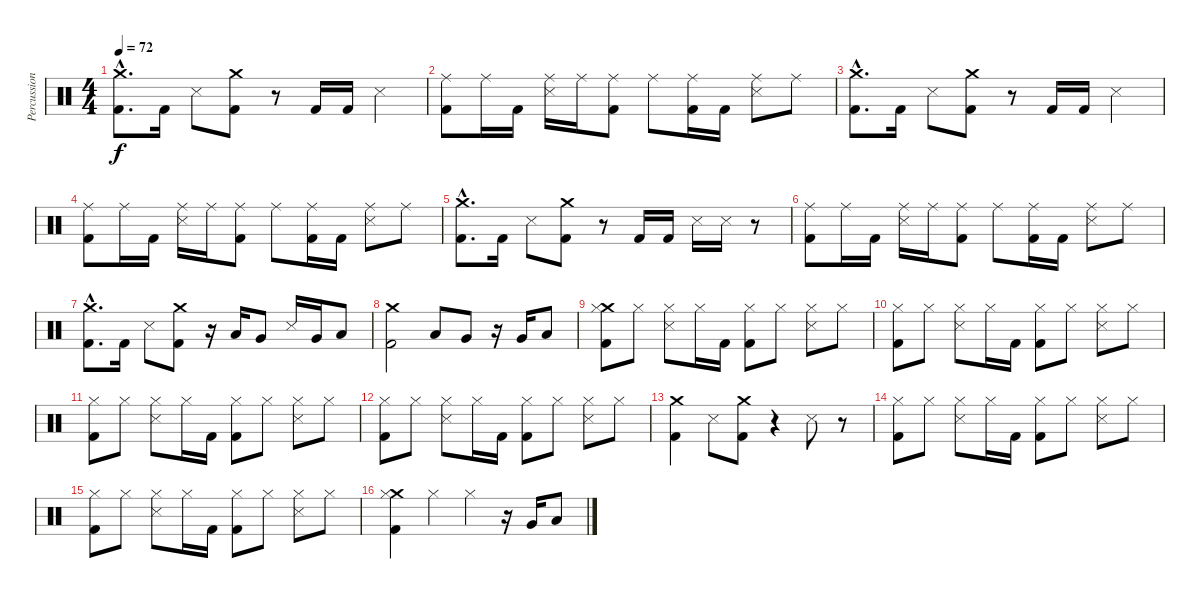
\track ("Percussion" "Percussion") {instrument percussion}
\staff {score}
\articulation defaults
\ts (4 4)
\tempo 72
\clef neutral
\ks c
("Crash medium (hit)"{hac} "Kick (hit) 2"{hac}).8{d dy f} "Kick (hit) 2".16 "Metronome (hit)".8 ("Crash medium (hit)" "Kick (hit) 2").8 r.8 "Kick (hit) 2".16 "Kick (hit) 2".16 "Metronome (hit)".4 |
("Ride (middle)" "Kick (hit) 2").8 "Ride (middle)".16 "Kick (hit) 2".16 ("Ride (middle)" "Metronome (hit)").16 "Ride (middle)".16 ("Ride (middle)" "Kick (hit) 2").8 "Ride (middle)".8 ("Ride (middle)" "Kick (hit) 2").16 "Kick (hit) 2".16 ("Ride (middle)" "Metronome (hit)").8 "Ride (middle)".8 |
("Crash medium (hit)"{hac} "Kick (hit) 2"{hac}).8{d} "Kick (hit) 2".16 "Metronome (hit)".8 ("Crash medium (hit)" "Kick (hit) 2").8 r.8 "Kick (hit) 2".16 "Kick (hit) 2".16 "Metronome (hit)".4 |
("Ride (middle)" "Kick (hit) 2").8 "Ride (middle)".16 "Kick (hit) 2".16 ("Ride (middle)" "Metronome (hit)").16 "Ride (middle)".16 ("Ride (middle)" "Kick (hit) 2").8 "Ride (middle)".8 ("Ride (middle)" "Kick (hit) 2").16 "Kick (hit) 2".16 ("Ride (middle)" "Metronome (hit)").8 "Ride (middle)".8 |
("Crash medium (hit)"{hac} "Kick (hit) 2"{hac}).8{d} "Kick (hit) 2".16 "Metronome (hit)".8 ("Crash medium (hit)" "Kick (hit) 2").8 r.8 "Kick (hit) 2".16 "Kick (hit) 2".16 "Metronome (hit)".16 "Metronome (hit)".16 r.8 |
("Ride (middle)" "Kick (hit) 2").8 "Ride (middle)".16 "Kick (hit) 2".16 ("Ride (middle)" "Metronome (hit)").16 "Ride (middle)".16 ("Ride (middle)" "Kick (hit) 2").8 "Ride (middle)".8 ("Ride (middle)" "Kick (hit) 2").16 "Kick (hit) 2".16 ("Ride (middle)" "Metronome (hit)").8 "Ride (middle)".8 |
("Crash medium (hit)"{hac} "Kick (hit) 2"{hac}).8{d} "Kick (hit) 2".16 "Metronome (hit)".8 ("Crash medium (hit)" "Kick (hit) 2").8 r.16 "Low Tom (hit)".16 "Very Low Tom (hit)".8 "Metronome (hit)".16 "Very Low Tom (hit)".16 "Low Floor Tom (hit)".8 |
("Crash medium (hit)" "Kick (hit) 2").2 "Low Tom (hit)".8 "Very Low Tom (hit)".8 r.16 "Very Low Tom (hit)".16 "Low Floor Tom (hit)".8 |
("Crash medium (hit)" "Hi-Hat (closed)" "Kick (hit) 2").8 "Hi-Hat (closed)".8 ("Hi-Hat (closed)" "Metronome (hit)").8 "Hi-Hat (closed)".16 "Kick (hit) 2".16 ("Hi-Hat (closed)" "Kick (hit) 2").8 "Hi-Hat (closed)".8 ("Hi-Hat (closed)" "Metronome (hit)").8 "Hi-Hat (closed)".8 |
("Hi-Hat (closed)" "Kick (hit) 2").8 "Hi-Hat (closed)".8 ("Hi-Hat (closed)" "Metronome (hit)").8 "Hi-Hat (closed)".16 "Kick (hit) 2".16 ("Hi-Hat (closed)" "Kick (hit) 2").8 "Hi-Hat (closed)".8 ("Hi-Hat (closed)" "Metronome (hit)").8 "Hi-Hat (closed)".8 |
("Hi-Hat (closed)" "Kick (hit) 2").8 "Hi-Hat (closed)".8 ("Hi-Hat (closed)" "Metronome (hit)").8 "Hi-Hat (closed)".16 "Kick (hit) 2".16 ("Hi-Hat (closed)" "Kick (hit) 2").8 "Hi-Hat (closed)".8 ("Hi-Hat (closed)" "Metronome (hit)").8 "Hi-Hat (closed)".8 |
("Hi-Hat (closed)" "Kick (hit) 2").8 "Hi-Hat (closed)".8 ("Hi-Hat (closed)" "Metronome (hit)").8 "Hi-Hat (closed)".16 "Kick (hit) 2".16 ("Hi-Hat (closed)" "Kick (hit) 2").8 "Hi-Hat (closed)".8 ("Hi-Hat (closed)" "Metronome (hit)").8 "Hi-Hat (closed)".8 |
("Crash medium (hit)" "Kick (hit) 2").4 "Metronome (hit)".8 ("Crash medium (hit)" "Kick (hit) 2").8 r.4 "Metronome (hit)".8 r.8 |
("Hi-Hat (closed)" "Kick (hit) 2").8 "Hi-Hat (closed)".8 ("Hi-Hat (closed)" "Metronome (hit)").8 "Hi-Hat (closed)".16 "Kick (hit) 2".16 ("Hi-Hat (closed)" "Kick (hit) 2").8 "Hi-Hat (closed)".8 ("Hi-Hat (closed)" "Metronome (hit)").8 "Hi-Hat (closed)".8 |
("Hi-Hat (closed)" "Kick (hit) 2").8 "Hi-Hat (closed)".8 ("Hi-Hat (closed)" "Metronome (hit)").8 "Hi-Hat (closed)".16 "Kick (hit) 2".16 ("Hi-Hat (closed)" "Kick (hit) 2").8 "Hi-Hat (closed)".8 ("Hi-Hat (closed)" "Metronome (hit)").8 "Hi-Hat (closed)".8 |
("Crash medium (hit)" "Hi-Hat (closed)" "Kick (hit) 2").4 "Hi-Hat (closed)".4 "Hi-Hat (closed)".4 r.16 "Very Low Tom (hit)".16 "Low Floor Tom (hit)".8
